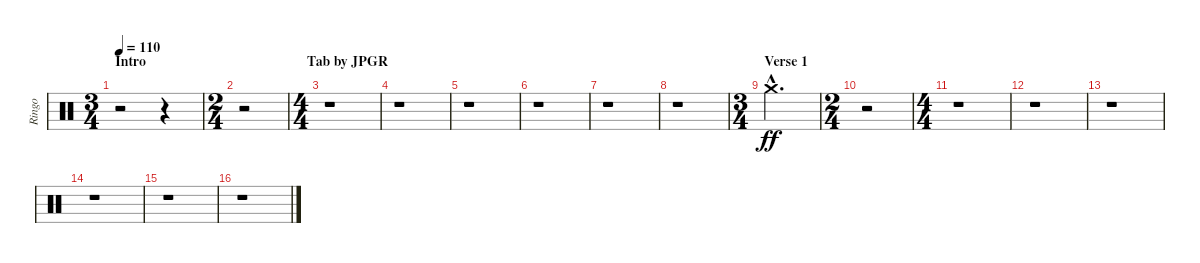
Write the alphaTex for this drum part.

\track ("Ringo" "Ringo") {instrument percussion}
\staff {score}
\articulation defaults
\ts (3 4)
\section ("" "Intro                                              Tab by JPGR")
\tempo 110
\clef neutral
\ks c
r.2{dy ff} r.4 |
\ts (2 4)
r.2 |
\ts (4 4)
r.1 |
r.1 |
r.1 |
r.1 |
r.1 |
r.1 |
\ts (3 4)
\section ("" "Verse 1")
"Crash medium (hit)"{hac}.2{d} |
\ts (2 4)
r.2 |
\ts (4 4)
r.1 |
r.1 |
r.1 |
r.1 |
r.1 |
r.1
